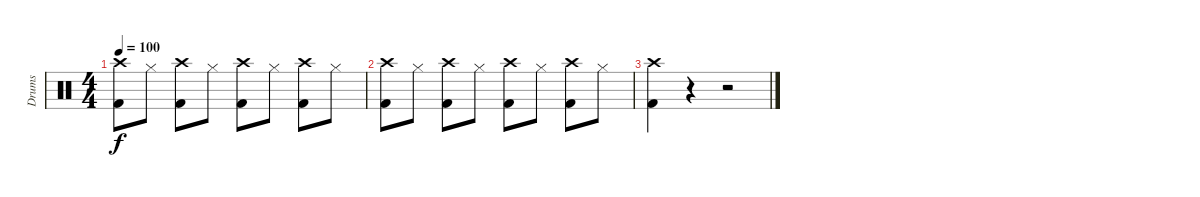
\track ("Drums" "Drums") {instrument percussion}
\staff {score}
\articulation defaults
\ts (4 4)
\tempo 100
\clef neutral
\ks c
("Crash high (hit)" "Kick (hit) 2").8{dy f} "Hi-Hat (closed)".8 ("Crash high (hit)" "Kick (hit) 2").8 "Hi-Hat (closed)".8 ("Crash high (hit)" "Kick (hit) 2").8 "Hi-Hat (closed)".8 ("Crash high (hit)" "Kick (hit) 2").8 "Hi-Hat (closed)".8 |
("Crash high (hit)" "Kick (hit) 2").8 "Hi-Hat (closed)".8 ("Crash high (hit)" "Kick (hit) 2").8 "Hi-Hat (closed)".8 ("Crash high (hit)" "Kick (hit) 2").8 "Hi-Hat (closed)".8 ("Crash high (hit)" "Kick (hit) 2").8 "Hi-Hat (closed)".8 |
("Crash high (hit)" "Kick (hit) 2").4 r.4 r.2
